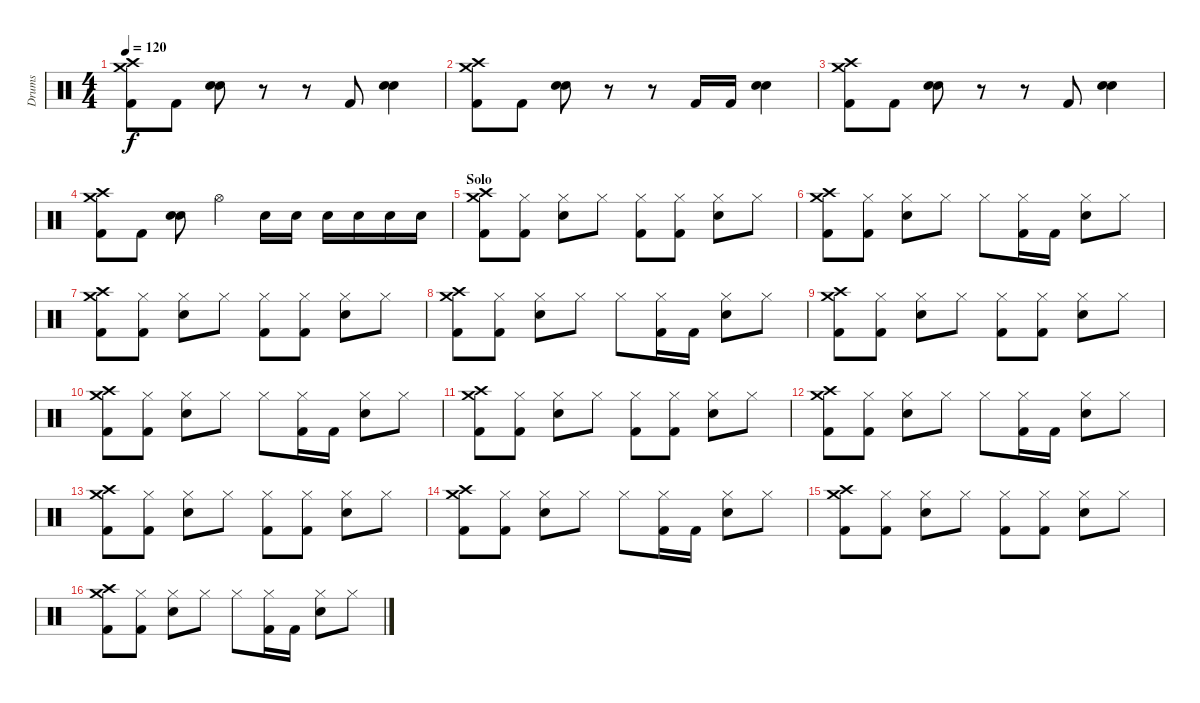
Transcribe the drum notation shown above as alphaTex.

\track ("Drums" "Drums") {instrument percussion}
\staff {score}
\articulation defaults
\ts (4 4)
\tempo 120
\clef neutral
\ks c
("Crash high (hit)" "Crash medium (hit)" "Kick (hit) 2").8{dy f} "Kick (hit) 2".8 ("Hand Clap (hit)" "Snare (hit) 2").8 r.8 r.8 "Kick (hit) 2".8 ("Hand Clap (hit)" "Snare (hit) 2").4 |
("Crash high (hit)" "Crash medium (hit)" "Kick (hit) 2").8 "Kick (hit) 2".8 ("Hand Clap (hit)" "Snare (hit) 2").8 r.8 r.8 "Kick (hit) 2".16 "Kick (hit) 2".16 ("Hand Clap (hit)" "Snare (hit) 2").4 |
("Crash high (hit)" "Crash medium (hit)" "Kick (hit) 2").8 "Kick (hit) 2".8 ("Hand Clap (hit)" "Snare (hit) 2").8 r.8 r.8 "Kick (hit) 2".8 ("Hand Clap (hit)" "Snare (hit) 2").4 |
("Crash high (hit)" "Crash medium (hit)" "Kick (hit) 2").8 "Kick (hit) 2".8 ("Hand Clap (hit)" "Snare (hit) 2").8 "Hi-Hat (open)".4 "Snare (hit) 2".16 "Snare (hit) 2".16 "Snare (hit) 2".16 "Snare (hit) 2".16 "Snare (hit) 2".16 "Snare (hit) 2".16 |
\section ("" "Solo")
("Crash high (hit)" "Crash medium (hit)" "Kick (hit) 2").8 ("Hi-Hat (closed)" "Kick (hit) 2").8 ("Hi-Hat (closed)" "Snare (hit) 2").8 "Hi-Hat (closed)".8 ("Hi-Hat (closed)" "Kick (hit) 2").8 ("Hi-Hat (closed)" "Kick (hit) 2").8 ("Hi-Hat (closed)" "Snare (hit) 2").8 "Hi-Hat (closed)".8 |
("Crash high (hit)" "Crash medium (hit)" "Kick (hit) 2").8 ("Hi-Hat (closed)" "Kick (hit) 2").8 ("Hi-Hat (closed)" "Snare (hit) 2").8 "Hi-Hat (closed)".8 "Hi-Hat (closed)".8 ("Hi-Hat (closed)" "Kick (hit) 2").16 "Kick (hit) 2".16 ("Hi-Hat (closed)" "Snare (hit) 2").8 "Hi-Hat (closed)".8 |
("Crash high (hit)" "Crash medium (hit)" "Kick (hit) 2").8 ("Hi-Hat (closed)" "Kick (hit) 2").8 ("Hi-Hat (closed)" "Snare (hit) 2").8 "Hi-Hat (closed)".8 ("Hi-Hat (closed)" "Kick (hit) 2").8 ("Hi-Hat (closed)" "Kick (hit) 2").8 ("Hi-Hat (closed)" "Snare (hit) 2").8 "Hi-Hat (closed)".8 |
("Crash high (hit)" "Crash medium (hit)" "Kick (hit) 2").8 ("Hi-Hat (closed)" "Kick (hit) 2").8 ("Hi-Hat (closed)" "Snare (hit) 2").8 "Hi-Hat (closed)".8 "Hi-Hat (closed)".8 ("Hi-Hat (closed)" "Kick (hit) 2").16 "Kick (hit) 2".16 ("Hi-Hat (closed)" "Snare (hit) 2").8 "Hi-Hat (closed)".8 |
("Crash high (hit)" "Crash medium (hit)" "Kick (hit) 2").8 ("Hi-Hat (closed)" "Kick (hit) 2").8 ("Hi-Hat (closed)" "Snare (hit) 2").8 "Hi-Hat (closed)".8 ("Hi-Hat (closed)" "Kick (hit) 2").8 ("Hi-Hat (closed)" "Kick (hit) 2").8 ("Hi-Hat (closed)" "Snare (hit) 2").8 "Hi-Hat (closed)".8 |
("Crash high (hit)" "Crash medium (hit)" "Kick (hit) 2").8 ("Hi-Hat (closed)" "Kick (hit) 2").8 ("Hi-Hat (closed)" "Snare (hit) 2").8 "Hi-Hat (closed)".8 "Hi-Hat (closed)".8 ("Hi-Hat (closed)" "Kick (hit) 2").16 "Kick (hit) 2".16 ("Hi-Hat (closed)" "Snare (hit) 2").8 "Hi-Hat (closed)".8 |
("Crash high (hit)" "Crash medium (hit)" "Kick (hit) 2").8 ("Hi-Hat (closed)" "Kick (hit) 2").8 ("Hi-Hat (closed)" "Snare (hit) 2").8 "Hi-Hat (closed)".8 ("Hi-Hat (closed)" "Kick (hit) 2").8 ("Hi-Hat (closed)" "Kick (hit) 2").8 ("Hi-Hat (closed)" "Snare (hit) 2").8 "Hi-Hat (closed)".8 |
("Crash high (hit)" "Crash medium (hit)" "Kick (hit) 2").8 ("Hi-Hat (closed)" "Kick (hit) 2").8 ("Hi-Hat (closed)" "Snare (hit) 2").8 "Hi-Hat (closed)".8 "Hi-Hat (closed)".8 ("Hi-Hat (closed)" "Kick (hit) 2").16 "Kick (hit) 2".16 ("Hi-Hat (closed)" "Snare (hit) 2").8 "Hi-Hat (closed)".8 |
("Crash high (hit)" "Crash medium (hit)" "Kick (hit) 2").8 ("Hi-Hat (closed)" "Kick (hit) 2").8 ("Hi-Hat (closed)" "Snare (hit) 2").8 "Hi-Hat (closed)".8 ("Hi-Hat (closed)" "Kick (hit) 2").8 ("Hi-Hat (closed)" "Kick (hit) 2").8 ("Hi-Hat (closed)" "Snare (hit) 2").8 "Hi-Hat (closed)".8 |
("Crash high (hit)" "Crash medium (hit)" "Kick (hit) 2").8 ("Hi-Hat (closed)" "Kick (hit) 2").8 ("Hi-Hat (closed)" "Snare (hit) 2").8 "Hi-Hat (closed)".8 "Hi-Hat (closed)".8 ("Hi-Hat (closed)" "Kick (hit) 2").16 "Kick (hit) 2".16 ("Hi-Hat (closed)" "Snare (hit) 2").8 "Hi-Hat (closed)".8 |
("Crash high (hit)" "Crash medium (hit)" "Kick (hit) 2").8 ("Hi-Hat (closed)" "Kick (hit) 2").8 ("Hi-Hat (closed)" "Snare (hit) 2").8 "Hi-Hat (closed)".8 ("Hi-Hat (closed)" "Kick (hit) 2").8 ("Hi-Hat (closed)" "Kick (hit) 2").8 ("Hi-Hat (closed)" "Snare (hit) 2").8 "Hi-Hat (closed)".8 |
("Crash high (hit)" "Crash medium (hit)" "Kick (hit) 2").8 ("Hi-Hat (closed)" "Kick (hit) 2").8 ("Hi-Hat (closed)" "Snare (hit) 2").8 "Hi-Hat (closed)".8 "Hi-Hat (closed)".8 ("Hi-Hat (closed)" "Kick (hit) 2").16 "Kick (hit) 2".16 ("Hi-Hat (closed)" "Snare (hit) 2").8 "Hi-Hat (closed)".8
